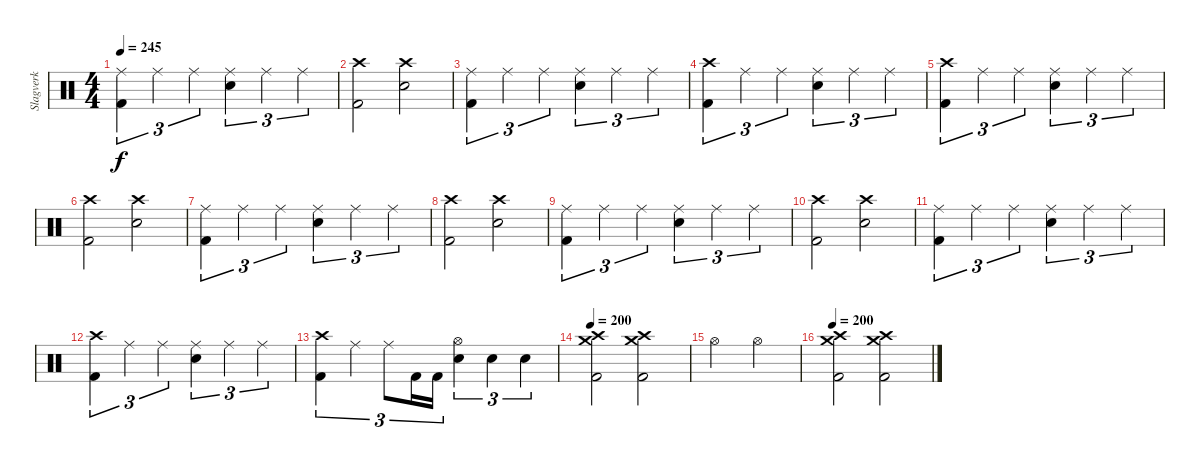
\track ("Slagverk" "Slagverk") {instrument percussion}
\staff {score}
\articulation defaults
\ts (4 4)
\tempo 245
\clef neutral
\ks c
("Ride (middle)" "Kick (hit) 2").4{tu (3 2) dy f} "Ride (middle)".4{tu (3 2)} "Ride (middle)".4{tu (3 2)} ("Ride (middle)" "Snare (hit) 2").4{tu (3 2)} "Ride (middle)".4{tu (3 2)} "Ride (middle)".4{tu (3 2)} |
("Crash high (hit)" "Kick (hit) 2").2 ("Crash high (hit)" "Snare (hit) 2").2 |
("Ride (middle)" "Kick (hit) 2").4{tu (3 2)} "Ride (middle)".4{tu (3 2)} "Ride (middle)".4{tu (3 2)} ("Ride (middle)" "Snare (hit) 2").4{tu (3 2)} "Ride (middle)".4{tu (3 2)} "Ride (middle)".4{tu (3 2)} |
("Crash high (hit)" "Kick (hit) 2").4{tu (3 2)} "Ride (middle)".4{tu (3 2)} "Ride (middle)".4{tu (3 2)} ("Ride (middle)" "Snare (hit) 2").4{tu (3 2)} "Ride (middle)".4{tu (3 2)} "Ride (middle)".4{tu (3 2)} |
("Crash high (hit)" "Kick (hit) 2").4{tu (3 2)} "Ride (middle)".4{tu (3 2)} "Ride (middle)".4{tu (3 2)} ("Ride (middle)" "Snare (hit) 2").4{tu (3 2)} "Ride (middle)".4{tu (3 2)} "Ride (middle)".4{tu (3 2)} |
("Crash high (hit)" "Kick (hit) 2").2 ("Crash high (hit)" "Snare (hit) 2").2 |
("Ride (middle)" "Kick (hit) 2").4{tu (3 2)} "Ride (middle)".4{tu (3 2)} "Ride (middle)".4{tu (3 2)} ("Ride (middle)" "Snare (hit) 2").4{tu (3 2)} "Ride (middle)".4{tu (3 2)} "Ride (middle)".4{tu (3 2)} |
("Crash high (hit)" "Kick (hit) 2").2 ("Crash high (hit)" "Snare (hit) 2").2 |
("Ride (middle)" "Kick (hit) 2").4{tu (3 2)} "Ride (middle)".4{tu (3 2)} "Ride (middle)".4{tu (3 2)} ("Ride (middle)" "Snare (hit) 2").4{tu (3 2)} "Ride (middle)".4{tu (3 2)} "Ride (middle)".4{tu (3 2)} |
("Crash high (hit)" "Kick (hit) 2").2 ("Crash high (hit)" "Snare (hit) 2").2 |
("Ride (middle)" "Kick (hit) 2").4{tu (3 2)} "Ride (middle)".4{tu (3 2)} "Ride (middle)".4{tu (3 2)} ("Ride (middle)" "Snare (hit) 2").4{tu (3 2)} "Ride (middle)".4{tu (3 2)} "Ride (middle)".4{tu (3 2)} |
("Crash high (hit)" "Kick (hit) 2").4{tu (3 2)} "Ride (middle)".4{tu (3 2)} "Ride (middle)".4{tu (3 2)} ("Ride (middle)" "Snare (hit) 2").4{tu (3 2)} "Ride (middle)".4{tu (3 2)} "Ride (middle)".4{tu (3 2)} |
("Crash high (hit)" "Kick (hit) 2").4{tu (3 2)} "Ride (middle)".4{tu (3 2)} "Ride (middle)".8{tu (3 2)} "Kick (hit) 2".16{tu (3 2)} "Kick (hit) 2".16{tu (3 2)} ("Hi-Hat (open)" "Snare (hit) 2").4{tu (3 2)} "Snare (hit) 2".4{tu (3 2)} "Snare (hit) 2".4{tu (3 2)} |
\tempo 200
("Crash high (hit)" "Crash medium (hit)" "Kick (hit) 2").2 ("Crash high (hit)" "Crash medium (hit)" "Kick (hit) 2").2 |
"Hi-Hat (open)".2 "Hi-Hat (open)".2 |
\tempo 200
("Crash high (hit)" "Crash medium (hit)" "Kick (hit) 2").2 ("Crash high (hit)" "Crash medium (hit)" "Kick (hit) 2").2
